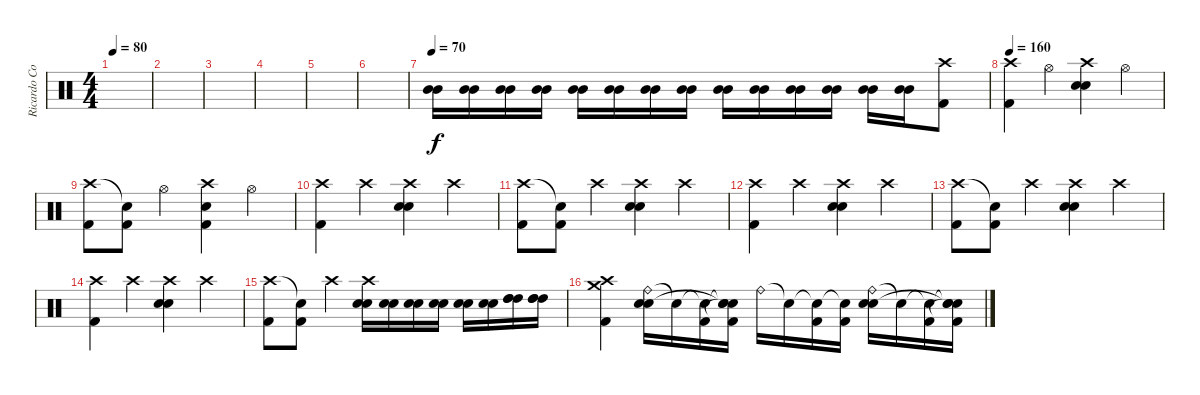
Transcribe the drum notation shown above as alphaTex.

\track ("Ricardo Confessori" "Ricardo Co") {instrument percussion}
\staff {score}
\articulation defaults
\ts (4 4)
\tempo 80
\clef neutral
\ks c
|
|
|
|
|
|
\tempo 80
\tempo 70
("Mid Tom (hit)" "Mid Tom (hit)").16 ("Mid Tom (hit)" "Mid Tom (hit)").16 ("Mid Tom (hit)" "Mid Tom (hit)").16 ("Mid Tom (hit)" "Mid Tom (hit)").16 ("Mid Tom (hit)" "Mid Tom (hit)").16 ("Mid Tom (hit)" "Mid Tom (hit)").16 ("Mid Tom (hit)" "Mid Tom (hit)").16 ("Mid Tom (hit)" "Mid Tom (hit)").16 ("Mid Tom (hit)" "Mid Tom (hit)").16 ("Mid Tom (hit)" "Mid Tom (hit)").16 ("Mid Tom (hit)" "Mid Tom (hit)").16 ("Mid Tom (hit)" "Mid Tom (hit)").16 ("Mid Tom (hit)" "Mid Tom (hit)").16 ("Mid Tom (hit)" "Mid Tom (hit)").16 ("Crash high (hit)" "Kick (hit) 2").8 |
\tempo 160
("Crash high (hit)" "Kick (hit) 2").4 "Hi-Hat (open)".4 ("Crash high (hit)" "Electric Snare (hit)" "Snare (hit) 2").4 "Hi-Hat (open)".4 |
("Crash high (hit)" "Kick (hit) 2").8 ("Snare (hit)"{t} "Kick (hit) 2").8 "Hi-Hat (open)".4 ("Crash high (hit)" "Electric Snare (hit)" "Kick (hit) 2").4 "Hi-Hat (open)".4 |
("Crash high (hit)" "Kick (hit) 2").4 "Crash high (hit)".4 ("Crash high (hit)" "Electric Snare (hit)" "Snare (hit) 2").4 "Crash high (hit)".4 |
("Crash high (hit)" "Kick (hit) 2").8 ("Snare (hit)"{t} "Kick (hit) 2").8 "Crash high (hit)".4 ("Crash high (hit)" "Electric Snare (hit)" "Snare (hit) 2").4 "Crash high (hit)".4 |
("Crash high (hit)" "Kick (hit) 2").4 "Crash high (hit)".4 ("Crash high (hit)" "Electric Snare (hit)" "Snare (hit) 2").4 "Crash high (hit)".4 |
("Crash high (hit)" "Kick (hit) 2").8 ("Snare (hit)"{t} "Kick (hit) 2").8 "Crash high (hit)".4 ("Crash high (hit)" "Electric Snare (hit)" "Snare (hit) 2").4 "Crash high (hit)".4 |
("Crash high (hit)" "Kick (hit) 2").4 "Crash high (hit)".4 ("Crash high (hit)" "Electric Snare (hit)" "Snare (hit) 2").4 "Crash high (hit)".4 |
("Crash high (hit)" "Kick (hit) 2").8 ("Snare (hit)"{t} "Kick (hit) 2").8 "Crash high (hit)".4 ("Crash high (hit)" "Electric Snare (hit)" "Snare (hit) 2").16 ("Electric Snare (hit)" "Snare (hit) 2").16 ("Electric Snare (hit)" "Snare (hit) 2").16 ("Electric Snare (hit)" "Snare (hit) 2").16 ("Electric Snare (hit)" "Snare (hit) 2").16 ("Electric Snare (hit)" "Snare (hit) 2").16 ("High Tom (hit)" "High Tom (hit)" "High Tom (hit)").16 ("High Tom (hit)" "High Tom (hit)" "High Tom (hit)").16 |
("Crash high (hit)" "Crash medium (hit)" "Kick (hit) 2").4 ("Ride (bell)" "Electric Snare (hit)" "Snare (hit) 2").16 "Snare (hit)"{t}.16 ("Snare (hit)"{t} "Kick (hit) 2").16 ("Snare (hit)"{t} "Snare (hit)"{t} "Snare (hit)"{t} "Kick (hit) 2").16 "Ride (bell)".16 "Snare (hit)"{t}.16 ("Snare (hit)"{t} "Kick (hit) 2").16 ("Snare (hit)"{t} "Kick (hit) 2").16 ("Ride (bell)" "Electric Snare (hit)" "Snare (hit) 2").16 "Snare (hit)"{t}.16 ("Snare (hit)"{t} "Kick (hit) 2").16 ("Snare (hit)"{t} "Snare (hit)"{t} "Snare (hit)"{t} "Kick (hit) 2").16
